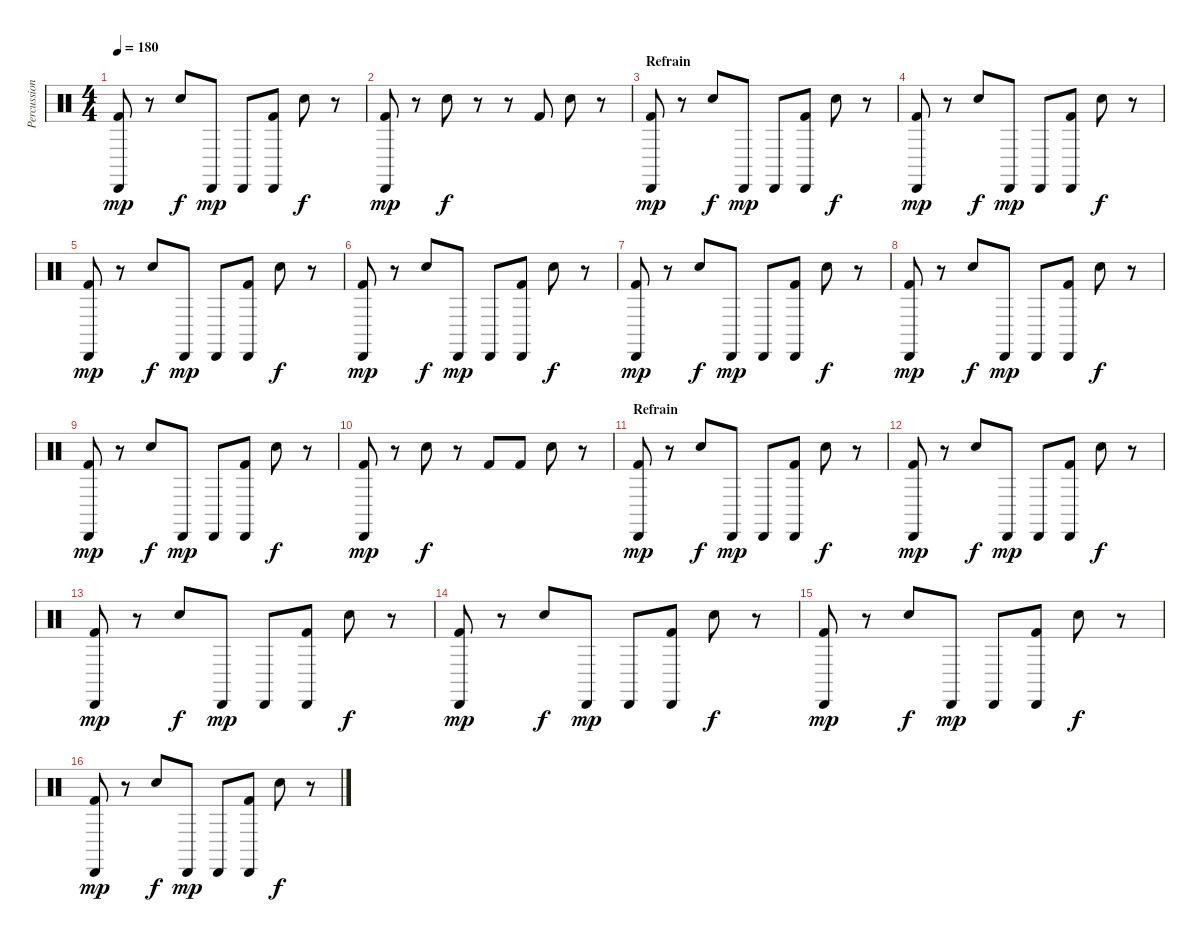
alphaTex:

\track ("Percussions" "Percussion") {instrument percussion}
\staff {score}
\articulation defaults
\ts (4 4)
\tempo 180
\clef neutral
\ks c
("Cabasa (hit)" "Kick (hit) 2").8{dy mp} r.8 "Electric Snare (hit)".8{dy f} "Cabasa (hit)".8{dy mp} "Cabasa (hit)".8 ("Cabasa (hit)" "Kick (hit) 2").8 "Electric Snare (hit)".8{dy f} r.8 |
("Cabasa (hit)" "Kick (hit) 2").8{dy mp} r.8 "Electric Snare (hit)".8{dy f} r.8 r.8 "Kick (hit) 2".8 "Electric Snare (hit)".8 r.8 |
\section ("" "Refrain")
("Cabasa (hit)" "Kick (hit) 2").8{dy mp} r.8 "Electric Snare (hit)".8{dy f} "Cabasa (hit)".8{dy mp} "Cabasa (hit)".8 ("Cabasa (hit)" "Kick (hit) 2").8 "Electric Snare (hit)".8{dy f} r.8 |
("Cabasa (hit)" "Kick (hit) 2").8{dy mp} r.8 "Electric Snare (hit)".8{dy f} "Cabasa (hit)".8{dy mp} "Cabasa (hit)".8 ("Cabasa (hit)" "Kick (hit) 2").8 "Electric Snare (hit)".8{dy f} r.8 |
("Cabasa (hit)" "Kick (hit) 2").8{dy mp} r.8 "Electric Snare (hit)".8{dy f} "Cabasa (hit)".8{dy mp} "Cabasa (hit)".8 ("Cabasa (hit)" "Kick (hit) 2").8 "Electric Snare (hit)".8{dy f} r.8 |
("Cabasa (hit)" "Kick (hit) 2").8{dy mp} r.8 "Electric Snare (hit)".8{dy f} "Cabasa (hit)".8{dy mp} "Cabasa (hit)".8 ("Cabasa (hit)" "Kick (hit) 2").8 "Electric Snare (hit)".8{dy f} r.8 |
("Cabasa (hit)" "Kick (hit) 2").8{dy mp} r.8 "Electric Snare (hit)".8{dy f} "Cabasa (hit)".8{dy mp} "Cabasa (hit)".8 ("Cabasa (hit)" "Kick (hit) 2").8 "Electric Snare (hit)".8{dy f} r.8 |
("Cabasa (hit)" "Kick (hit) 2").8{dy mp} r.8 "Electric Snare (hit)".8{dy f} "Cabasa (hit)".8{dy mp} "Cabasa (hit)".8 ("Cabasa (hit)" "Kick (hit) 2").8 "Electric Snare (hit)".8{dy f} r.8 |
("Cabasa (hit)" "Kick (hit) 2").8{dy mp} r.8 "Electric Snare (hit)".8{dy f} "Cabasa (hit)".8{dy mp} "Cabasa (hit)".8 ("Cabasa (hit)" "Kick (hit) 2").8 "Electric Snare (hit)".8{dy f} r.8 |
("Cabasa (hit)" "Kick (hit) 2").8{dy mp} r.8 "Electric Snare (hit)".8{dy f} r.8 "Kick (hit) 2".8 "Kick (hit) 2".8 "Electric Snare (hit)".8 r.8 |
\section ("" "Refrain")
("Cabasa (hit)" "Kick (hit) 2").8{dy mp} r.8 "Electric Snare (hit)".8{dy f} "Cabasa (hit)".8{dy mp} "Cabasa (hit)".8 ("Cabasa (hit)" "Kick (hit) 2").8 "Electric Snare (hit)".8{dy f} r.8 |
("Cabasa (hit)" "Kick (hit) 2").8{dy mp} r.8 "Electric Snare (hit)".8{dy f} "Cabasa (hit)".8{dy mp} "Cabasa (hit)".8 ("Cabasa (hit)" "Kick (hit) 2").8 "Electric Snare (hit)".8{dy f} r.8 |
("Cabasa (hit)" "Kick (hit) 2").8{dy mp} r.8 "Electric Snare (hit)".8{dy f} "Cabasa (hit)".8{dy mp} "Cabasa (hit)".8 ("Cabasa (hit)" "Kick (hit) 2").8 "Electric Snare (hit)".8{dy f} r.8 |
("Cabasa (hit)" "Kick (hit) 2").8{dy mp} r.8 "Electric Snare (hit)".8{dy f} "Cabasa (hit)".8{dy mp} "Cabasa (hit)".8 ("Cabasa (hit)" "Kick (hit) 2").8 "Electric Snare (hit)".8{dy f} r.8 |
("Cabasa (hit)" "Kick (hit) 2").8{dy mp} r.8 "Electric Snare (hit)".8{dy f} "Cabasa (hit)".8{dy mp} "Cabasa (hit)".8 ("Cabasa (hit)" "Kick (hit) 2").8 "Electric Snare (hit)".8{dy f} r.8 |
("Cabasa (hit)" "Kick (hit) 2").8{dy mp} r.8 "Electric Snare (hit)".8{dy f} "Cabasa (hit)".8{dy mp} "Cabasa (hit)".8 ("Cabasa (hit)" "Kick (hit) 2").8 "Electric Snare (hit)".8{dy f} r.8
